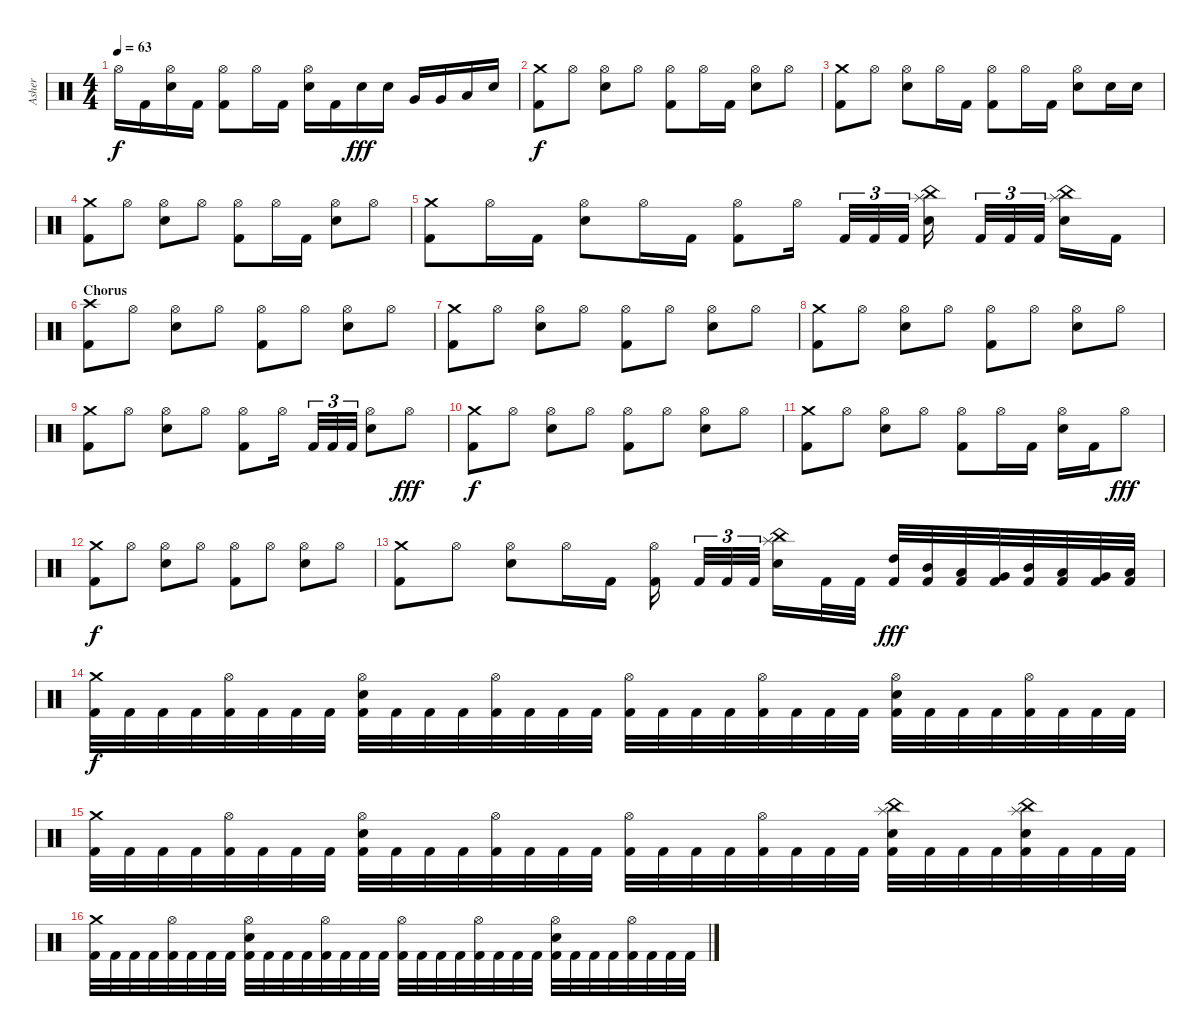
\track ("Asher" "Asher") {instrument percussion}
\staff {score}
\articulation defaults
\ts (4 4)
\tempo 63
\clef neutral
\ks c "Hi-Hat (open)".16{dy f} "Kick (hit) 2".16
("Hi-Hat (open)" "Electric Snare (hit)").16 "Kick (hit) 2".16 ("Hi-Hat (open)" "Kick (hit) 2").8 "Hi-Hat (open)".16 "Kick (hit) 2".16 ("Hi-Hat (open)" "Electric Snare (hit)").16 "Kick (hit) 2".16 "Electric Snare (hit)".16{dy fff} "Electric Snare (hit)".16 "Very Low Tom (hit)".16 "Very Low Tom (hit)".16 "Low Floor Tom (hit)".16 "Electric Snare (hit)".16 |
("Crash medium (hit)" "Kick (hit) 2").8{dy f} "Hi-Hat (open)".8 ("Hi-Hat (open)" "Electric Snare (hit)").8 "Hi-Hat (open)".8 ("Hi-Hat (open)" "Kick (hit) 2").8 "Hi-Hat (open)".16 "Kick (hit) 2".16 ("Hi-Hat (open)" "Electric Snare (hit)").8 "Hi-Hat (open)".8 |
("Crash medium (hit)" "Kick (hit) 2").8 "Hi-Hat (open)".8 ("Hi-Hat (open)" "Electric Snare (hit)").8 "Hi-Hat (open)".16 "Kick (hit) 2".16 ("Hi-Hat (open)" "Kick (hit) 2").8 "Hi-Hat (open)".16 "Kick (hit) 2".16 ("Hi-Hat (open)" "Electric Snare (hit)").8 "Electric Snare (hit)".16 "Electric Snare (hit)".16 |
("Crash medium (hit)" "Kick (hit) 2").8 "Hi-Hat (open)".8 ("Hi-Hat (open)" "Electric Snare (hit)").8 "Hi-Hat (open)".8 ("Hi-Hat (open)" "Kick (hit) 2").8 "Hi-Hat (open)".16 "Kick (hit) 2".16 ("Hi-Hat (open)" "Electric Snare (hit)").8 "Hi-Hat (open)".8 |
("Crash medium (hit)" "Kick (hit) 2").8 "Hi-Hat (open)".16 "Kick (hit) 2".16 ("Hi-Hat (open)" "Electric Snare (hit)").8 "Hi-Hat (open)".16 "Kick (hit) 2".16 ("Hi-Hat (open)" "Kick (hit) 2").8 "Hi-Hat (open)".16 "Kick (hit) 2".32{tu (3 2)} "Kick (hit) 2".32{tu (3 2)} "Kick (hit) 2".32{tu (3 2)} ("China (hit)" "Splash (hit)" "Electric Snare (hit)").16 "Kick (hit) 2".32{tu (3 2)} "Kick (hit) 2".32{tu (3 2)} "Kick (hit) 2".32{tu (3 2)} ("China (hit)" "Splash (hit)" "Electric Snare (hit)").16 "Kick (hit) 2".16 |
\section ("" "Chorus")
("Crash high (hit)" "Kick (hit) 2").8 "Hi-Hat (open)".8 ("Hi-Hat (open)" "Electric Snare (hit)").8 "Hi-Hat (open)".8 ("Hi-Hat (open)" "Kick (hit) 2").8 "Hi-Hat (open)".8 ("Hi-Hat (open)" "Electric Snare (hit)").8 "Hi-Hat (open)".8 |
("Crash medium (hit)" "Kick (hit) 2").8 "Hi-Hat (open)".8 ("Hi-Hat (open)" "Electric Snare (hit)").8 "Hi-Hat (open)".8 ("Hi-Hat (open)" "Kick (hit) 2").8 "Hi-Hat (open)".8 ("Hi-Hat (open)" "Electric Snare (hit)").8 "Hi-Hat (open)".8 |
("Crash medium (hit)" "Kick (hit) 2").8 "Hi-Hat (open)".8 ("Hi-Hat (open)" "Electric Snare (hit)").8 "Hi-Hat (open)".8 ("Hi-Hat (open)" "Kick (hit) 2").8 "Hi-Hat (open)".8 ("Hi-Hat (open)" "Electric Snare (hit)").8 "Hi-Hat (open)".8 |
("Crash medium (hit)" "Kick (hit) 2").8 "Hi-Hat (open)".8 ("Hi-Hat (open)" "Electric Snare (hit)").8 "Hi-Hat (open)".8 ("Hi-Hat (open)" "Kick (hit) 2").8 "Hi-Hat (open)".16 "Kick (hit) 2".32{tu (3 2)} "Kick (hit) 2".32{tu (3 2)} "Kick (hit) 2".32{tu (3 2)} ("Hi-Hat (open)" "Electric Snare (hit)").8 "Hi-Hat (open)".8{dy fff} |
("Crash medium (hit)" "Kick (hit) 2").8{dy f} "Hi-Hat (open)".8 ("Hi-Hat (open)" "Electric Snare (hit)").8 "Hi-Hat (open)".8 ("Hi-Hat (open)" "Kick (hit) 2").8 "Hi-Hat (open)".8 ("Hi-Hat (open)" "Electric Snare (hit)").8 "Hi-Hat (open)".8 |
("Crash medium (hit)" "Kick (hit) 2").8 "Hi-Hat (open)".8 ("Hi-Hat (open)" "Electric Snare (hit)").8 "Hi-Hat (open)".8 ("Hi-Hat (open)" "Kick (hit) 2").8 "Hi-Hat (open)".16 "Kick (hit) 2".16 ("Hi-Hat (open)" "Electric Snare (hit)").16 "Kick (hit) 2".16 "Hi-Hat (open)".8{dy fff} |
("Crash medium (hit)" "Kick (hit) 2").8{dy f} "Hi-Hat (open)".8 ("Hi-Hat (open)" "Electric Snare (hit)").8 "Hi-Hat (open)".8 ("Hi-Hat (open)" "Kick (hit) 2").8 "Hi-Hat (open)".8 ("Hi-Hat (open)" "Electric Snare (hit)").8 "Hi-Hat (open)".8 |
("Crash medium (hit)" "Kick (hit) 2").8 "Hi-Hat (open)".8 ("Hi-Hat (open)" "Electric Snare (hit)").8 "Hi-Hat (open)".16 "Kick (hit) 2".16 ("Hi-Hat (open)" "Kick (hit) 2").16 "Kick (hit) 2".32{tu (3 2)} "Kick (hit) 2".32{tu (3 2)} "Kick (hit) 2".32{tu (3 2)} ("China (hit)" "Splash (hit)" "Electric Snare (hit)").16 "Kick (hit) 2".32 "Kick (hit) 2".32 ("High Tom (hit)" "Kick (hit) 2").32{dy fff} ("Mid Tom (hit)" "Kick (hit) 2").32 ("Low Tom (hit)" "Kick (hit) 2").32 ("Very Low Tom (hit)" "Kick (hit) 2").32 ("Mid Tom (hit)" "Kick (hit) 2").32 ("Low Tom (hit)" "Kick (hit) 2").32 ("Very Low Tom (hit)" "Kick (hit) 2").32 ("Low Floor Tom (hit)" "Kick (hit) 2").32 |
("Crash medium (hit)" "Kick (hit) 2").32{dy f} "Kick (hit) 2".32 "Kick (hit) 2".32 "Kick (hit) 2".32 ("Hi-Hat (open)" "Kick (hit) 2").32 "Kick (hit) 2".32 "Kick (hit) 2".32 "Kick (hit) 2".32 ("Hi-Hat (open)" "Electric Snare (hit)" "Kick (hit) 2").32 "Kick (hit) 2".32 "Kick (hit) 2".32 "Kick (hit) 2".32 ("Hi-Hat (open)" "Kick (hit) 2").32 "Kick (hit) 2".32 "Kick (hit) 2".32 "Kick (hit) 2".32 ("Hi-Hat (open)" "Kick (hit) 2").32 "Kick (hit) 2".32 "Kick (hit) 2".32 "Kick (hit) 2".32 ("Hi-Hat (open)" "Kick (hit) 2").32 "Kick (hit) 2".32 "Kick (hit) 2".32 "Kick (hit) 2".32 ("Hi-Hat (open)" "Electric Snare (hit)" "Kick (hit) 2").32 "Kick (hit) 2".32 "Kick (hit) 2".32 "Kick (hit) 2".32 ("Hi-Hat (open)" "Kick (hit) 2").32 "Kick (hit) 2".32 "Kick (hit) 2".32 "Kick (hit) 2".32 |
("Crash medium (hit)" "Kick (hit) 2").32 "Kick (hit) 2".32 "Kick (hit) 2".32 "Kick (hit) 2".32 ("Hi-Hat (open)" "Kick (hit) 2").32 "Kick (hit) 2".32 "Kick (hit) 2".32 "Kick (hit) 2".32 ("Hi-Hat (open)" "Electric Snare (hit)" "Kick (hit) 2").32 "Kick (hit) 2".32 "Kick (hit) 2".32 "Kick (hit) 2".32 ("Hi-Hat (open)" "Kick (hit) 2").32 "Kick (hit) 2".32 "Kick (hit) 2".32 "Kick (hit) 2".32 ("Hi-Hat (open)" "Kick (hit) 2").32 "Kick (hit) 2".32 "Kick (hit) 2".32 "Kick (hit) 2".32 ("Hi-Hat (open)" "Kick (hit) 2").32 "Kick (hit) 2".32 "Kick (hit) 2".32 "Kick (hit) 2".32 ("China (hit)" "Splash (hit)" "Electric Snare (hit)" "Kick (hit) 2").32 "Kick (hit) 2".32 "Kick (hit) 2".32 "Kick (hit) 2".32 ("China (hit)" "Splash (hit)" "Electric Snare (hit)" "Kick (hit) 2").32 "Kick (hit) 2".32 "Kick (hit) 2".32 "Kick (hit) 2".32 |
("Crash medium (hit)" "Kick (hit) 2").32 "Kick (hit) 2".32 "Kick (hit) 2".32 "Kick (hit) 2".32 ("Hi-Hat (open)" "Kick (hit) 2").32 "Kick (hit) 2".32 "Kick (hit) 2".32 "Kick (hit) 2".32 ("Hi-Hat (open)" "Electric Snare (hit)" "Kick (hit) 2").32 "Kick (hit) 2".32 "Kick (hit) 2".32 "Kick (hit) 2".32 ("Hi-Hat (open)" "Kick (hit) 2").32 "Kick (hit) 2".32 "Kick (hit) 2".32 "Kick (hit) 2".32 ("Hi-Hat (open)" "Kick (hit) 2").32 "Kick (hit) 2".32 "Kick (hit) 2".32 "Kick (hit) 2".32 ("Hi-Hat (open)" "Kick (hit) 2").32 "Kick (hit) 2".32 "Kick (hit) 2".32 "Kick (hit) 2".32 ("Hi-Hat (open)" "Electric Snare (hit)" "Kick (hit) 2").32 "Kick (hit) 2".32 "Kick (hit) 2".32 "Kick (hit) 2".32 ("Hi-Hat (open)" "Kick (hit) 2").32 "Kick (hit) 2".32 "Kick (hit) 2".32 "Kick (hit) 2".32
